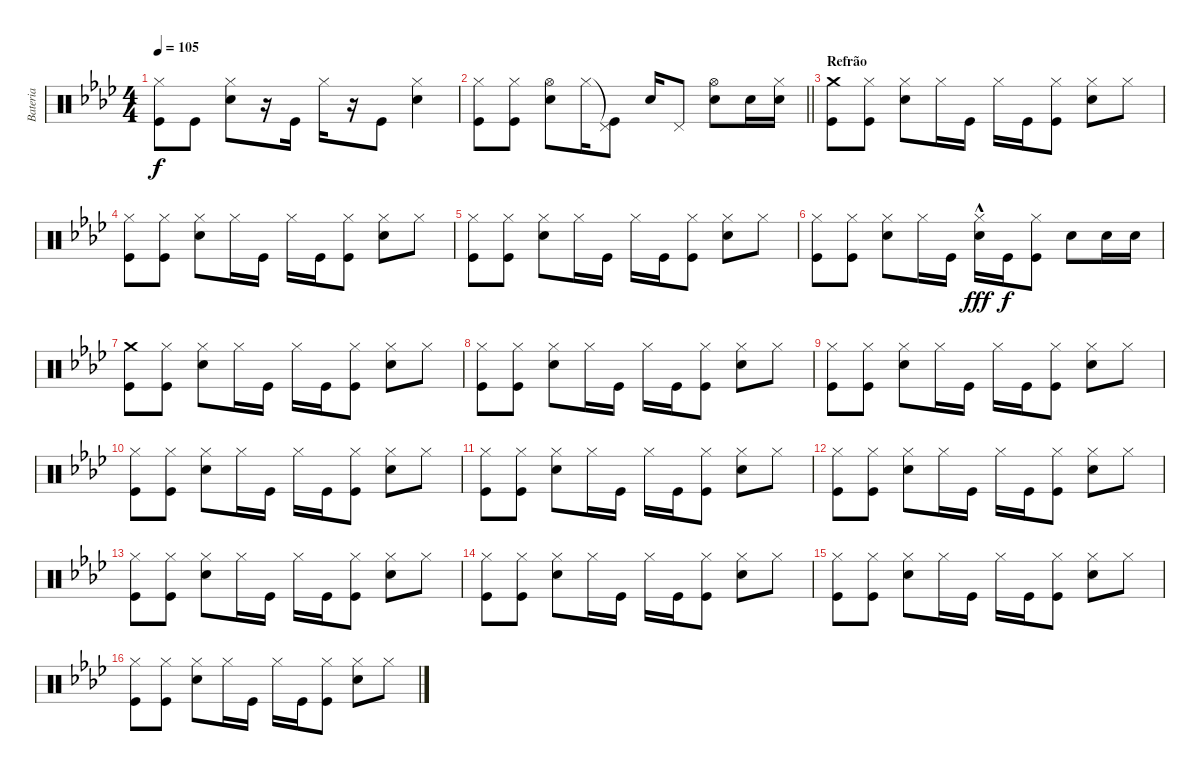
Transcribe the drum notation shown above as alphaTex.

\track ("Bateria" "Bateria") {instrument percussion}
\staff {score}
\articulation defaults
\ts (4 4)
\tempo 105
\clef neutral
\ks fminor
("Hi-Hat (closed)" "Kick (hit)").8{dy f} "Kick (hit)".8 ("Hi-Hat (closed)" "Electric Snare (hit)").8 r.16 "Kick (hit)".16 "Hi-Hat (closed)".16 r.16 "Kick (hit)".8 ("Hi-Hat (closed)" "Electric Snare (hit)").4 |
\barLineRight lightlight
("Hi-Hat (closed)" "Kick (hit)").8 ("Hi-Hat (closed)" "Kick (hit)").8 ("Hi-Hat (open)" "Electric Snare (hit)").8 "Hi-Hat (closed)".16 ("Pedal Hi-Hat (hit)"{t} "Kick (hit)").8 "Electric Snare (hit)".16 "Pedal Hi-Hat (hit)".8 ("Hi-Hat (open)" "Electric Snare (hit)").8 "Electric Snare (hit)".16 ("Hi-Hat (closed)" "Electric Snare (hit)").16 |
\section ("" "Refrão")
("Crash medium (hit)" "Kick (hit)").8 ("Hi-Hat (closed)" "Kick (hit)").8 ("Hi-Hat (closed)" "Electric Snare (hit)").8 "Hi-Hat (closed)".16 "Kick (hit)".16 "Hi-Hat (closed)".16 "Kick (hit)".16 ("Hi-Hat (closed)" "Kick (hit)").8 ("Hi-Hat (closed)" "Electric Snare (hit)").8 "Hi-Hat (closed)".8 |
("Hi-Hat (closed)" "Kick (hit)").8 ("Hi-Hat (closed)" "Kick (hit)").8 ("Hi-Hat (closed)" "Electric Snare (hit)").8 "Hi-Hat (closed)".16 "Kick (hit)".16 "Hi-Hat (closed)".16 "Kick (hit)".16 ("Hi-Hat (closed)" "Kick (hit)").8 ("Hi-Hat (closed)" "Electric Snare (hit)").8 "Hi-Hat (closed)".8 |
("Hi-Hat (closed)" "Kick (hit)").8 ("Hi-Hat (closed)" "Kick (hit)").8 ("Hi-Hat (closed)" "Electric Snare (hit)").8 "Hi-Hat (closed)".16 "Kick (hit)".16 "Hi-Hat (closed)".16 "Kick (hit)".16 ("Hi-Hat (closed)" "Kick (hit)").8 ("Hi-Hat (closed)" "Electric Snare (hit)").8 "Hi-Hat (closed)".8 |
("Hi-Hat (closed)" "Kick (hit)").8 ("Hi-Hat (closed)" "Kick (hit)").8 ("Hi-Hat (closed)" "Electric Snare (hit)").8 "Hi-Hat (closed)".16 "Kick (hit)".16 ("Hi-Hat (closed)" "Electric Snare (hit)"{hac}).16{dy fff} "Kick (hit)".16{dy f} ("Hi-Hat (closed)" "Kick (hit)").8 "Electric Snare (hit)".8 "Electric Snare (hit)".16 "Electric Snare (hit)".16 |
("Crash medium (hit)" "Kick (hit)").8 ("Hi-Hat (closed)" "Kick (hit)").8 ("Hi-Hat (closed)" "Electric Snare (hit)").8 "Hi-Hat (closed)".16 "Kick (hit)".16 "Hi-Hat (closed)".16 "Kick (hit)".16 ("Hi-Hat (closed)" "Kick (hit)").8 ("Hi-Hat (closed)" "Electric Snare (hit)").8 "Hi-Hat (closed)".8 |
("Hi-Hat (closed)" "Kick (hit)").8 ("Hi-Hat (closed)" "Kick (hit)").8 ("Hi-Hat (closed)" "Electric Snare (hit)").8 "Hi-Hat (closed)".16 "Kick (hit)".16 "Hi-Hat (closed)".16 "Kick (hit)".16 ("Hi-Hat (closed)" "Kick (hit)").8 ("Hi-Hat (closed)" "Electric Snare (hit)").8 "Hi-Hat (closed)".8 |
("Hi-Hat (closed)" "Kick (hit)").8 ("Hi-Hat (closed)" "Kick (hit)").8 ("Hi-Hat (closed)" "Electric Snare (hit)").8 "Hi-Hat (closed)".16 "Kick (hit)".16 "Hi-Hat (closed)".16 "Kick (hit)".16 ("Hi-Hat (closed)" "Kick (hit)").8 ("Hi-Hat (closed)" "Electric Snare (hit)").8 "Hi-Hat (closed)".8 |
("Hi-Hat (closed)" "Kick (hit)").8 ("Hi-Hat (closed)" "Kick (hit)").8 ("Hi-Hat (closed)" "Electric Snare (hit)").8 "Hi-Hat (closed)".16 "Kick (hit)".16 "Hi-Hat (closed)".16 "Kick (hit)".16 ("Hi-Hat (closed)" "Kick (hit)").8 ("Hi-Hat (closed)" "Electric Snare (hit)").8 "Hi-Hat (closed)".8 |
("Hi-Hat (closed)" "Kick (hit)").8 ("Hi-Hat (closed)" "Kick (hit)").8 ("Hi-Hat (closed)" "Electric Snare (hit)").8 "Hi-Hat (closed)".16 "Kick (hit)".16 "Hi-Hat (closed)".16 "Kick (hit)".16 ("Hi-Hat (closed)" "Kick (hit)").8 ("Hi-Hat (closed)" "Electric Snare (hit)").8 "Hi-Hat (closed)".8 |
("Hi-Hat (closed)" "Kick (hit)").8 ("Hi-Hat (closed)" "Kick (hit)").8 ("Hi-Hat (closed)" "Electric Snare (hit)").8 "Hi-Hat (closed)".16 "Kick (hit)".16 "Hi-Hat (closed)".16 "Kick (hit)".16 ("Hi-Hat (closed)" "Kick (hit)").8 ("Hi-Hat (closed)" "Electric Snare (hit)").8 "Hi-Hat (closed)".8 |
("Hi-Hat (closed)" "Kick (hit)").8 ("Hi-Hat (closed)" "Kick (hit)").8 ("Hi-Hat (closed)" "Electric Snare (hit)").8 "Hi-Hat (closed)".16 "Kick (hit)".16 "Hi-Hat (closed)".16 "Kick (hit)".16 ("Hi-Hat (closed)" "Kick (hit)").8 ("Hi-Hat (closed)" "Electric Snare (hit)").8 "Hi-Hat (closed)".8 |
("Hi-Hat (closed)" "Kick (hit)").8 ("Hi-Hat (closed)" "Kick (hit)").8 ("Hi-Hat (closed)" "Electric Snare (hit)").8 "Hi-Hat (closed)".16 "Kick (hit)".16 "Hi-Hat (closed)".16 "Kick (hit)".16 ("Hi-Hat (closed)" "Kick (hit)").8 ("Hi-Hat (closed)" "Electric Snare (hit)").8 "Hi-Hat (closed)".8 |
("Hi-Hat (closed)" "Kick (hit)").8 ("Hi-Hat (closed)" "Kick (hit)").8 ("Hi-Hat (closed)" "Electric Snare (hit)").8 "Hi-Hat (closed)".16 "Kick (hit)".16 "Hi-Hat (closed)".16 "Kick (hit)".16 ("Hi-Hat (closed)" "Kick (hit)").8 ("Hi-Hat (closed)" "Electric Snare (hit)").8 "Hi-Hat (closed)".8 |
("Hi-Hat (closed)" "Kick (hit)").8 ("Hi-Hat (closed)" "Kick (hit)").8 ("Hi-Hat (closed)" "Electric Snare (hit)").8 "Hi-Hat (closed)".16 "Kick (hit)".16 "Hi-Hat (closed)".16 "Kick (hit)".16 ("Hi-Hat (closed)" "Kick (hit)").8 ("Hi-Hat (closed)" "Electric Snare (hit)").8 "Hi-Hat (closed)".8
